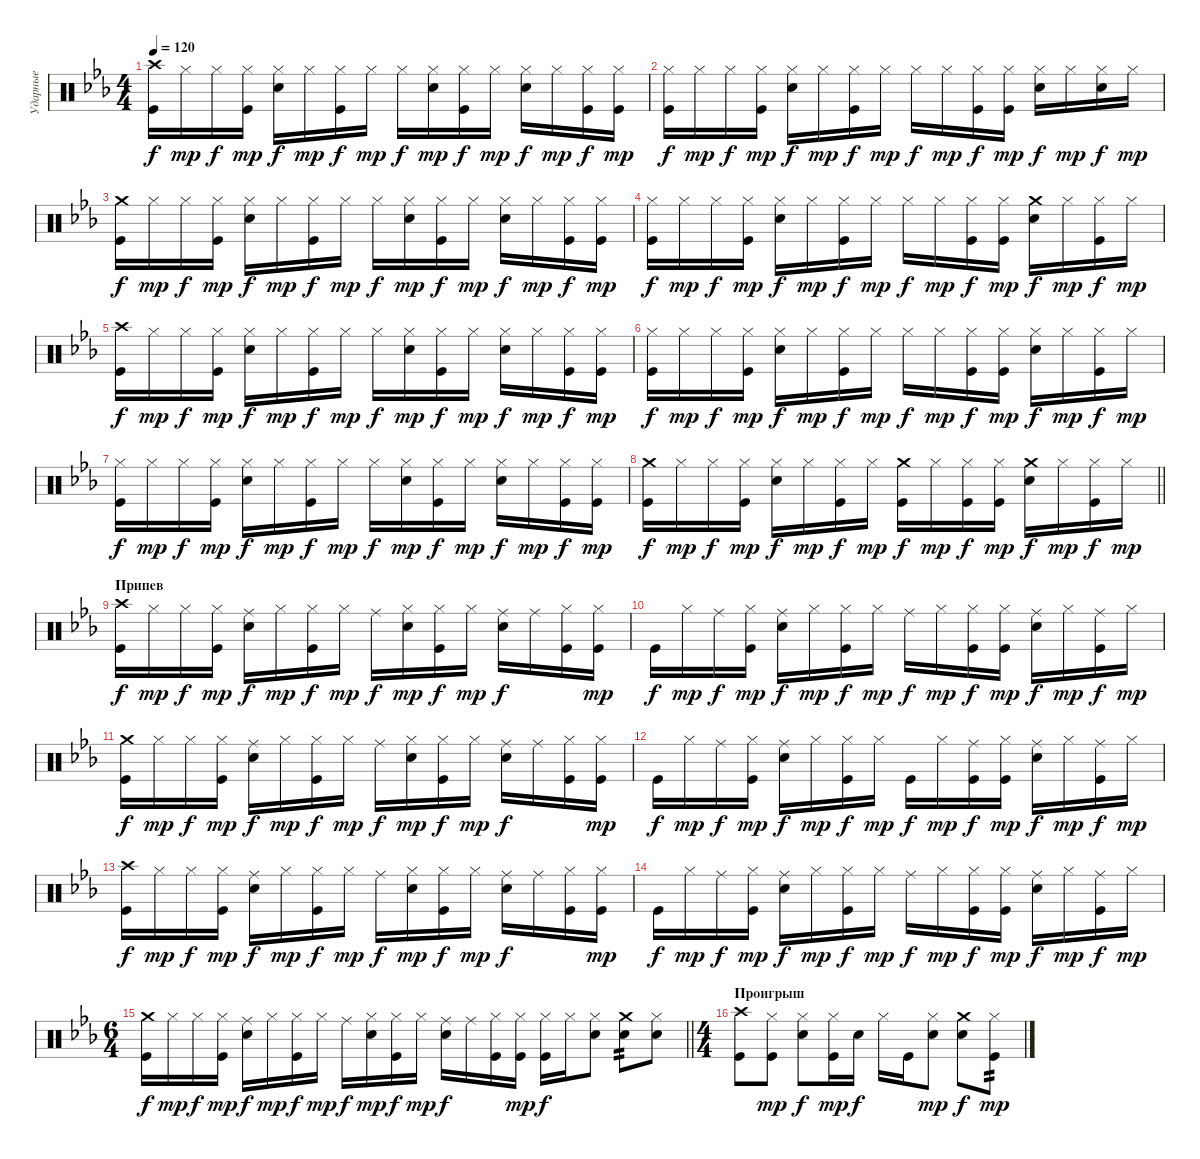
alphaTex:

\track ("Ударные" "Ударные") {instrument percussion}
\staff {score}
\articulation defaults
\ts (4 4)
\tempo 120
\clef neutral
\ks cminor
("Crash high (hit)" "Kick (hit)").16{dy f} "Hi-Hat (closed)".16{dy mp} "Hi-Hat (closed)".16{dy f} ("Hi-Hat (closed)" "Kick (hit)").16{dy mp} ("Hi-Hat (closed)" "Snare (hit) 2").16{dy f} "Hi-Hat (closed)".16{dy mp} ("Hi-Hat (closed)" "Kick (hit)").16{dy f} "Hi-Hat (closed)".16{dy mp} "Hi-Hat (closed)".16{dy f} ("Hi-Hat (closed)" "Snare (hit) 2").16{dy mp} ("Hi-Hat (closed)" "Kick (hit)").16{dy f} "Hi-Hat (closed)".16{dy mp} ("Hi-Hat (closed)" "Snare (hit) 2").16{dy f} "Hi-Hat (closed)".16{dy mp} ("Hi-Hat (closed)" "Kick (hit)").16{dy f} ("Hi-Hat (closed)" "Kick (hit)").16{dy mp} |
("Hi-Hat (closed)" "Kick (hit)").16{dy f} "Hi-Hat (closed)".16{dy mp} "Hi-Hat (closed)".16{dy f} ("Hi-Hat (closed)" "Kick (hit)").16{dy mp} ("Hi-Hat (closed)" "Snare (hit) 2").16{dy f} "Hi-Hat (closed)".16{dy mp} ("Hi-Hat (closed)" "Kick (hit)").16{dy f} "Hi-Hat (closed)".16{dy mp} "Hi-Hat (closed)".16{dy f} "Hi-Hat (closed)".16{dy mp} ("Hi-Hat (closed)" "Kick (hit)").16{dy f} ("Hi-Hat (closed)" "Kick (hit)").16{dy mp} ("Hi-Hat (closed)" "Snare (hit) 2").16{dy f} "Hi-Hat (closed)".16{dy mp} ("Hi-Hat (closed)" "Snare (hit) 2").16{dy f} "Hi-Hat (closed)".16{dy mp} |
("Crash medium (hit)" "Kick (hit)").16{dy f} "Hi-Hat (closed)".16{dy mp} "Hi-Hat (closed)".16{dy f} ("Hi-Hat (closed)" "Kick (hit)").16{dy mp} ("Hi-Hat (closed)" "Snare (hit) 2").16{dy f} "Hi-Hat (closed)".16{dy mp} ("Hi-Hat (closed)" "Kick (hit)").16{dy f} "Hi-Hat (closed)".16{dy mp} "Hi-Hat (closed)".16{dy f} ("Hi-Hat (closed)" "Snare (hit) 2").16{dy mp} ("Hi-Hat (closed)" "Kick (hit)").16{dy f} "Hi-Hat (closed)".16{dy mp} ("Hi-Hat (closed)" "Snare (hit) 2").16{dy f} "Hi-Hat (closed)".16{dy mp} ("Hi-Hat (closed)" "Kick (hit)").16{dy f} ("Hi-Hat (closed)" "Kick (hit)").16{dy mp} |
("Hi-Hat (closed)" "Kick (hit)").16{dy f} "Hi-Hat (closed)".16{dy mp} "Hi-Hat (closed)".16{dy f} ("Hi-Hat (closed)" "Kick (hit)").16{dy mp} ("Hi-Hat (closed)" "Snare (hit) 2").16{dy f} "Hi-Hat (closed)".16{dy mp} ("Hi-Hat (closed)" "Kick (hit)").16{dy f} "Hi-Hat (closed)".16{dy mp} "Hi-Hat (closed)".16{dy f} "Hi-Hat (closed)".16{dy mp} ("Hi-Hat (closed)" "Kick (hit)").16{dy f} ("Hi-Hat (closed)" "Kick (hit)").16{dy mp} ("Crash medium (hit)" "Snare (hit) 2").16{dy f} "Hi-Hat (closed)".16{dy mp} ("Hi-Hat (closed)" "Kick (hit)").16{dy f} "Hi-Hat (closed)".16{dy mp} |
("Crash high (hit)" "Kick (hit)").16{dy f} "Hi-Hat (closed)".16{dy mp} "Hi-Hat (closed)".16{dy f} ("Hi-Hat (closed)" "Kick (hit)").16{dy mp} ("Hi-Hat (closed)" "Snare (hit) 2").16{dy f} "Hi-Hat (closed)".16{dy mp} ("Hi-Hat (closed)" "Kick (hit)").16{dy f} "Hi-Hat (closed)".16{dy mp} "Hi-Hat (closed)".16{dy f} ("Hi-Hat (closed)" "Snare (hit) 2").16{dy mp} ("Hi-Hat (closed)" "Kick (hit)").16{dy f} "Hi-Hat (closed)".16{dy mp} ("Hi-Hat (closed)" "Snare (hit) 2").16{dy f} "Hi-Hat (closed)".16{dy mp} ("Hi-Hat (closed)" "Kick (hit)").16{dy f} ("Hi-Hat (closed)" "Kick (hit)").16{dy mp} |
("Hi-Hat (closed)" "Kick (hit)").16{dy f} "Hi-Hat (closed)".16{dy mp} "Hi-Hat (closed)".16{dy f} ("Hi-Hat (closed)" "Kick (hit)").16{dy mp} ("Hi-Hat (closed)" "Snare (hit) 2").16{dy f} "Hi-Hat (closed)".16{dy mp} ("Hi-Hat (closed)" "Kick (hit)").16{dy f} "Hi-Hat (closed)".16{dy mp} "Hi-Hat (closed)".16{dy f} "Hi-Hat (closed)".16{dy mp} ("Hi-Hat (closed)" "Kick (hit)").16{dy f} ("Hi-Hat (closed)" "Kick (hit)").16{dy mp} ("Hi-Hat (closed)" "Snare (hit) 2").16{dy f} "Hi-Hat (closed)".16{dy mp} ("Hi-Hat (closed)" "Kick (hit)").16{dy f} "Hi-Hat (closed)".16{dy mp} |
("Hi-Hat (closed)" "Kick (hit)").16{dy f} "Hi-Hat (closed)".16{dy mp} "Hi-Hat (closed)".16{dy f} ("Hi-Hat (closed)" "Kick (hit)").16{dy mp} ("Hi-Hat (closed)" "Snare (hit) 2").16{dy f} "Hi-Hat (closed)".16{dy mp} ("Hi-Hat (closed)" "Kick (hit)").16{dy f} "Hi-Hat (closed)".16{dy mp} "Hi-Hat (closed)".16{dy f} ("Hi-Hat (closed)" "Snare (hit) 2").16{dy mp} ("Hi-Hat (closed)" "Kick (hit)").16{dy f} "Hi-Hat (closed)".16{dy mp} ("Hi-Hat (closed)" "Snare (hit) 2").16{dy f} "Hi-Hat (closed)".16{dy mp} ("Hi-Hat (closed)" "Kick (hit)").16{dy f} ("Hi-Hat (closed)" "Kick (hit)").16{dy mp} |
\barLineRight lightlight
("Crash medium (hit)" "Kick (hit)").16{dy f} "Hi-Hat (closed)".16{dy mp} "Hi-Hat (closed)".16{dy f} ("Hi-Hat (closed)" "Kick (hit)").16{dy mp} ("Hi-Hat (closed)" "Snare (hit) 2").16{dy f} "Hi-Hat (closed)".16{dy mp} ("Hi-Hat (closed)" "Kick (hit)").16{dy f} "Hi-Hat (closed)".16{dy mp} ("Crash medium (hit)" "Kick (hit)").16{dy f} "Hi-Hat (closed)".16{dy mp} ("Hi-Hat (closed)" "Kick (hit)").16{dy f} ("Hi-Hat (closed)" "Kick (hit)").16{dy mp} ("Crash medium (hit)" "Snare (hit) 2").16{dy f} "Hi-Hat (closed)".16{dy mp} ("Hi-Hat (closed)" "Kick (hit)").16{dy f} "Hi-Hat (closed)".16{dy mp} |
\section ("" "Припев")
("Crash high (hit)" "Kick (hit)").16{dy f} "Hi-Hat (closed)".16{dy mp} "Hi-Hat (closed)".16{dy f} ("Hi-Hat (closed)" "Kick (hit)").16{dy mp} ("Ride (middle)" "Snare (hit) 2").16{dy f} "Hi-Hat (closed)".16{dy mp} ("Hi-Hat (closed)" "Kick (hit)").16{dy f} "Hi-Hat (closed)".16{dy mp} "Ride (middle)".16{dy f} ("Hi-Hat (closed)" "Snare (hit) 2").16{dy mp} ("Hi-Hat (closed)" "Kick (hit)").16{dy f} "Hi-Hat (closed)".16{dy mp} ("Ride (middle)" "Snare (hit) 2").16{dy f} "Ride (middle)".16 ("Hi-Hat (closed)" "Kick (hit)").16 ("Hi-Hat (closed)" "Kick (hit)").16{dy mp} |
"Kick (hit)".16{dy f} "Hi-Hat (closed)".16{dy mp} "Ride (middle)".16{dy f} ("Hi-Hat (closed)" "Kick (hit)").16{dy mp} ("Ride (middle)" "Snare (hit) 2").16{dy f} "Hi-Hat (closed)".16{dy mp} ("Hi-Hat (closed)" "Kick (hit)").16{dy f} "Hi-Hat (closed)".16{dy mp} "Ride (middle)".16{dy f} "Hi-Hat (closed)".16{dy mp} ("Hi-Hat (closed)" "Kick (hit)").16{dy f} ("Hi-Hat (closed)" "Kick (hit)").16{dy mp} ("Ride (middle)" "Snare (hit) 2").16{dy f} "Hi-Hat (closed)".16{dy mp} ("Ride (middle)" "Kick (hit)").16{dy f} "Hi-Hat (closed)".16{dy mp} |
("Crash medium (hit)" "Kick (hit)").16{dy f} "Hi-Hat (closed)".16{dy mp} "Hi-Hat (closed)".16{dy f} ("Hi-Hat (closed)" "Kick (hit)").16{dy mp} ("Ride (middle)" "Snare (hit) 2").16{dy f} "Hi-Hat (closed)".16{dy mp} ("Hi-Hat (closed)" "Kick (hit)").16{dy f} "Hi-Hat (closed)".16{dy mp} "Ride (middle)".16{dy f} ("Hi-Hat (closed)" "Snare (hit) 2").16{dy mp} ("Hi-Hat (closed)" "Kick (hit)").16{dy f} "Hi-Hat (closed)".16{dy mp} ("Ride (middle)" "Snare (hit) 2").16{dy f} "Ride (middle)".16 ("Hi-Hat (closed)" "Kick (hit)").16 ("Hi-Hat (closed)" "Kick (hit)").16{dy mp} |
"Kick (hit)".16{dy f} "Hi-Hat (closed)".16{dy mp} "Ride (middle)".16{dy f} ("Hi-Hat (closed)" "Kick (hit)").16{dy mp} ("Ride (middle)" "Snare (hit) 2").16{dy f} "Hi-Hat (closed)".16{dy mp} ("Hi-Hat (closed)" "Kick (hit)").16{dy f} "Hi-Hat (closed)".16{dy mp} "Kick (hit)".16{dy f} "Hi-Hat (closed)".16{dy mp} ("Ride (middle)" "Kick (hit)").16{dy f} ("Hi-Hat (closed)" "Kick (hit)").16{dy mp} ("Ride (middle)" "Snare (hit) 2").16{dy f} "Hi-Hat (closed)".16{dy mp} ("Ride (middle)" "Kick (hit)").16{dy f} "Hi-Hat (closed)".16{dy mp} |
("Crash high (hit)" "Kick (hit)").16{dy f} "Hi-Hat (closed)".16{dy mp} "Hi-Hat (closed)".16{dy f} ("Hi-Hat (closed)" "Kick (hit)").16{dy mp} ("Ride (middle)" "Snare (hit) 2").16{dy f} "Hi-Hat (closed)".16{dy mp} ("Hi-Hat (closed)" "Kick (hit)").16{dy f} "Hi-Hat (closed)".16{dy mp} "Ride (middle)".16{dy f} ("Hi-Hat (closed)" "Snare (hit) 2").16{dy mp} ("Hi-Hat (closed)" "Kick (hit)").16{dy f} "Hi-Hat (closed)".16{dy mp} ("Ride (middle)" "Snare (hit) 2").16{dy f} "Ride (middle)".16 ("Hi-Hat (closed)" "Kick (hit)").16 ("Hi-Hat (closed)" "Kick (hit)").16{dy mp} |
"Kick (hit)".16{dy f} "Hi-Hat (closed)".16{dy mp} "Ride (middle)".16{dy f} ("Hi-Hat (closed)" "Kick (hit)").16{dy mp} ("Ride (middle)" "Snare (hit) 2").16{dy f} "Hi-Hat (closed)".16{dy mp} ("Hi-Hat (closed)" "Kick (hit)").16{dy f} "Hi-Hat (closed)".16{dy mp} "Ride (middle)".16{dy f} "Hi-Hat (closed)".16{dy mp} ("Hi-Hat (closed)" "Kick (hit)").16{dy f} ("Hi-Hat (closed)" "Kick (hit)").16{dy mp} ("Ride (middle)" "Snare (hit) 2").16{dy f} "Hi-Hat (closed)".16{dy mp} ("Ride (middle)" "Kick (hit)").16{dy f} "Hi-Hat (closed)".16{dy mp} |
\ts (6 4)
\barLineRight lightlight
("Crash medium (hit)" "Kick (hit)").16{dy f} "Hi-Hat (closed)".16{dy mp} "Hi-Hat (closed)".16{dy f} ("Hi-Hat (closed)" "Kick (hit)").16{dy mp} ("Ride (middle)" "Snare (hit) 2").16{dy f} "Hi-Hat (closed)".16{dy mp} ("Hi-Hat (closed)" "Kick (hit)").16{dy f} "Hi-Hat (closed)".16{dy mp} "Ride (middle)".16{dy f} ("Hi-Hat (closed)" "Snare (hit) 2").16{dy mp} ("Hi-Hat (closed)" "Kick (hit)").16{dy f} "Hi-Hat (closed)".16{dy mp} ("Ride (middle)" "Snare (hit) 2").16{dy f} "Ride (middle)".16 ("Hi-Hat (closed)" "Kick (hit)").16 ("Hi-Hat (closed)" "Kick (hit)").16{dy mp} ("Hi-Hat (closed)" "Kick (hit)").16{dy f} "Hi-Hat (closed)".16 ("Hi-Hat (closed)" "Snare (hit) 2").8 ("Crash medium (hit)" "Snare (hit) 2").8{tp 2} ("Hi-Hat (closed)" "Snare (hit) 2").8 |
\ts (4 4)
\section ("" "Проигрыш")
("Crash high (hit)" "Kick (hit)").8 ("Hi-Hat (closed)" "Kick (hit)").8{dy mp} ("Hi-Hat (closed)" "Snare (hit) 2").8{dy f} ("Hi-Hat (closed)" "Kick (hit)").16{dy mp} "Snare (hit) 2".16{dy f} "Hi-Hat (closed)".16 "Kick (hit)".16 ("Hi-Hat (closed)" "Snare (hit) 2").8{dy mp} ("Crash medium (hit)" "Snare (hit) 2").8{dy f} ("Hi-Hat (closed)" "Kick (hit)").8{tp 2 dy mp}
